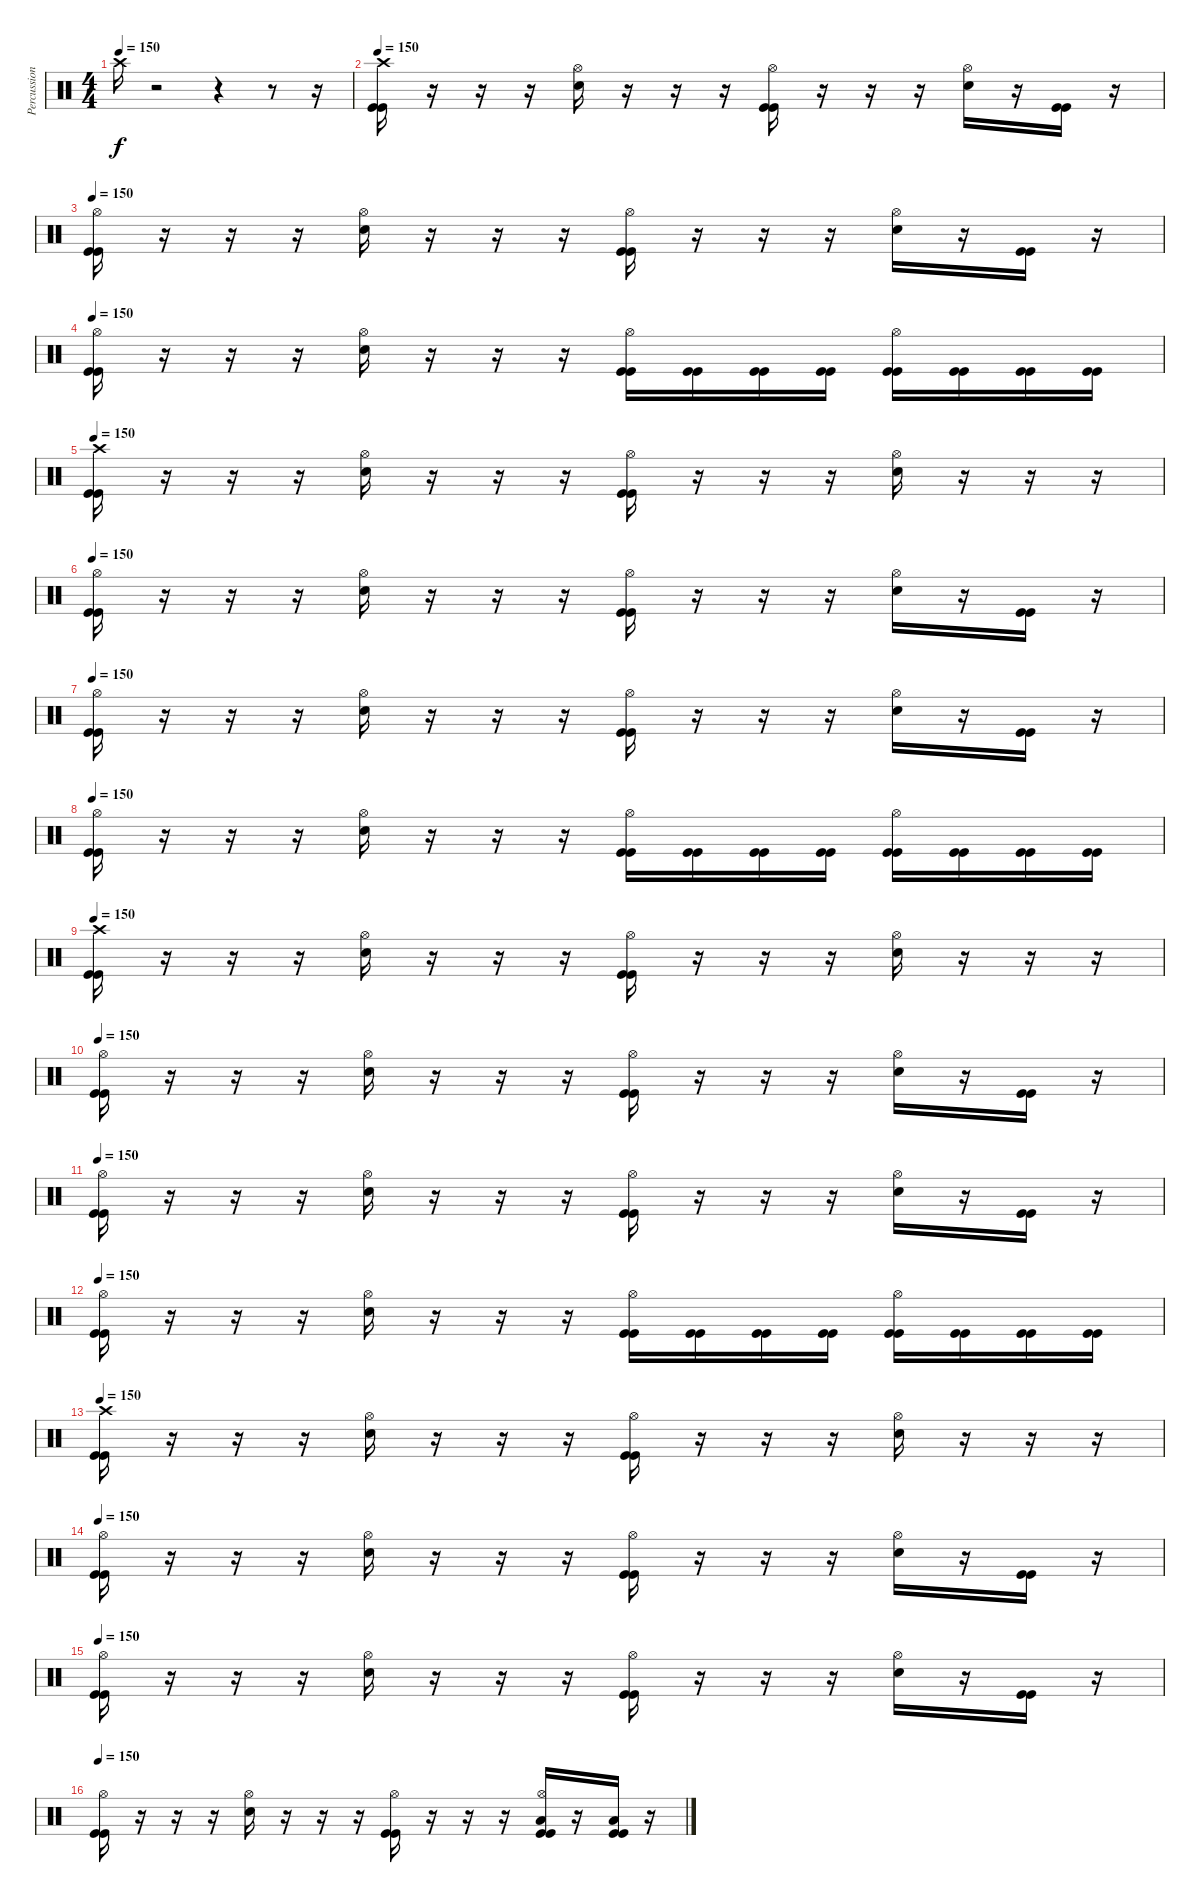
\track ("Percussions" "Percussion") {instrument percussion}
\staff {score}
\articulation defaults
\ts (4 4)
\tempo 150
\clef neutral
\ks c "Crash high (hit)".16{dy f}
r.2 r.4 r.8 r.16 |
\tempo 150
("Crash high (hit)" "Kick (hit)" "Kick (hit)").16 r.16 r.16 r.16 ("Hi-Hat (open)" "Electric Snare (hit)").16 r.16 r.16 r.16 ("Hi-Hat (open)" "Kick (hit)" "Kick (hit)").16 r.16 r.16 r.16 ("Hi-Hat (open)" "Electric Snare (hit)").16 r.16 ("Kick (hit)" "Kick (hit)").16 r.16 |
\tempo 150
("Hi-Hat (open)" "Kick (hit)" "Kick (hit)").16 r.16 r.16 r.16 ("Hi-Hat (open)" "Electric Snare (hit)").16 r.16 r.16 r.16 ("Hi-Hat (open)" "Kick (hit)" "Kick (hit)").16 r.16 r.16 r.16 ("Hi-Hat (open)" "Electric Snare (hit)").16 r.16 ("Kick (hit)" "Kick (hit)").16 r.16 |
\tempo 150
("Hi-Hat (open)" "Kick (hit)" "Kick (hit)").16 r.16 r.16 r.16 ("Hi-Hat (open)" "Electric Snare (hit)").16 r.16 r.16 r.16 ("Hi-Hat (open)" "Kick (hit)" "Kick (hit)").16 ("Kick (hit)" "Kick (hit)").16 ("Kick (hit)" "Kick (hit)").16 ("Kick (hit)" "Kick (hit)").16 ("Hi-Hat (open)" "Kick (hit)" "Kick (hit)").16 ("Kick (hit)" "Kick (hit)").16 ("Kick (hit)" "Kick (hit)").16 ("Kick (hit)" "Kick (hit)").16 |
\tempo 150
("Crash high (hit)" "Kick (hit)" "Kick (hit)").16 r.16 r.16 r.16 ("Hi-Hat (open)" "Electric Snare (hit)").16 r.16 r.16 r.16 ("Hi-Hat (open)" "Kick (hit)" "Kick (hit)").16 r.16 r.16 r.16 ("Hi-Hat (open)" "Electric Snare (hit)").16 r.16 r.16 r.16 |
\tempo 150
("Hi-Hat (open)" "Kick (hit)" "Kick (hit)").16 r.16 r.16 r.16 ("Hi-Hat (open)" "Electric Snare (hit)").16 r.16 r.16 r.16 ("Hi-Hat (open)" "Kick (hit)" "Kick (hit)").16 r.16 r.16 r.16 ("Hi-Hat (open)" "Electric Snare (hit)").16 r.16 ("Kick (hit)" "Kick (hit)").16 r.16 |
\tempo 150
("Hi-Hat (open)" "Kick (hit)" "Kick (hit)").16 r.16 r.16 r.16 ("Hi-Hat (open)" "Electric Snare (hit)").16 r.16 r.16 r.16 ("Hi-Hat (open)" "Kick (hit)" "Kick (hit)").16 r.16 r.16 r.16 ("Hi-Hat (open)" "Electric Snare (hit)").16 r.16 ("Kick (hit)" "Kick (hit)").16 r.16 |
\tempo 150
("Hi-Hat (open)" "Kick (hit)" "Kick (hit)").16 r.16 r.16 r.16 ("Hi-Hat (open)" "Electric Snare (hit)").16 r.16 r.16 r.16 ("Hi-Hat (open)" "Kick (hit)" "Kick (hit)").16 ("Kick (hit)" "Kick (hit)").16 ("Kick (hit)" "Kick (hit)").16 ("Kick (hit)" "Kick (hit)").16 ("Hi-Hat (open)" "Kick (hit)" "Kick (hit)").16 ("Kick (hit)" "Kick (hit)").16 ("Kick (hit)" "Kick (hit)").16 ("Kick (hit)" "Kick (hit)").16 |
\tempo 150
("Crash high (hit)" "Kick (hit)" "Kick (hit)").16 r.16 r.16 r.16 ("Hi-Hat (open)" "Electric Snare (hit)").16 r.16 r.16 r.16 ("Hi-Hat (open)" "Kick (hit)" "Kick (hit)").16 r.16 r.16 r.16 ("Hi-Hat (open)" "Electric Snare (hit)").16 r.16 r.16 r.16 |
\tempo 150
("Hi-Hat (open)" "Kick (hit)" "Kick (hit)").16 r.16 r.16 r.16 ("Hi-Hat (open)" "Electric Snare (hit)").16 r.16 r.16 r.16 ("Hi-Hat (open)" "Kick (hit)" "Kick (hit)").16 r.16 r.16 r.16 ("Hi-Hat (open)" "Electric Snare (hit)").16 r.16 ("Kick (hit)" "Kick (hit)").16 r.16 |
\tempo 150
("Hi-Hat (open)" "Kick (hit)" "Kick (hit)").16 r.16 r.16 r.16 ("Hi-Hat (open)" "Electric Snare (hit)").16 r.16 r.16 r.16 ("Hi-Hat (open)" "Kick (hit)" "Kick (hit)").16 r.16 r.16 r.16 ("Hi-Hat (open)" "Electric Snare (hit)").16 r.16 ("Kick (hit)" "Kick (hit)").16 r.16 |
\tempo 150
("Hi-Hat (open)" "Kick (hit)" "Kick (hit)").16 r.16 r.16 r.16 ("Hi-Hat (open)" "Electric Snare (hit)").16 r.16 r.16 r.16 ("Hi-Hat (open)" "Kick (hit)" "Kick (hit)").16 ("Kick (hit)" "Kick (hit)").16 ("Kick (hit)" "Kick (hit)").16 ("Kick (hit)" "Kick (hit)").16 ("Hi-Hat (open)" "Kick (hit)" "Kick (hit)").16 ("Kick (hit)" "Kick (hit)").16 ("Kick (hit)" "Kick (hit)").16 ("Kick (hit)" "Kick (hit)").16 |
\tempo 150
("Crash high (hit)" "Kick (hit)" "Kick (hit)").16 r.16 r.16 r.16 ("Hi-Hat (open)" "Electric Snare (hit)").16 r.16 r.16 r.16 ("Hi-Hat (open)" "Kick (hit)" "Kick (hit)").16 r.16 r.16 r.16 ("Hi-Hat (open)" "Electric Snare (hit)").16 r.16 r.16 r.16 |
\tempo 150
("Hi-Hat (open)" "Kick (hit)" "Kick (hit)").16 r.16 r.16 r.16 ("Hi-Hat (open)" "Electric Snare (hit)").16 r.16 r.16 r.16 ("Hi-Hat (open)" "Kick (hit)" "Kick (hit)").16 r.16 r.16 r.16 ("Hi-Hat (open)" "Electric Snare (hit)").16 r.16 ("Kick (hit)" "Kick (hit)").16 r.16 |
\tempo 150
("Hi-Hat (open)" "Kick (hit)" "Kick (hit)").16 r.16 r.16 r.16 ("Hi-Hat (open)" "Electric Snare (hit)").16 r.16 r.16 r.16 ("Hi-Hat (open)" "Kick (hit)" "Kick (hit)").16 r.16 r.16 r.16 ("Hi-Hat (open)" "Electric Snare (hit)").16 r.16 ("Kick (hit)" "Kick (hit)").16 r.16 |
\tempo 150
("Hi-Hat (open)" "Kick (hit)" "Kick (hit)").16 r.16 r.16 r.16 ("Hi-Hat (open)" "Electric Snare (hit)").16 r.16 r.16 r.16 ("Hi-Hat (open)" "Kick (hit)" "Kick (hit)").16 r.16 r.16 r.16 ("Hi-Hat (open)" "Low Tom (hit)" "Kick (hit)" "Kick (hit)").16 r.16 ("Low Floor Tom (hit)" "Kick (hit)" "Kick (hit)").16 r.16
